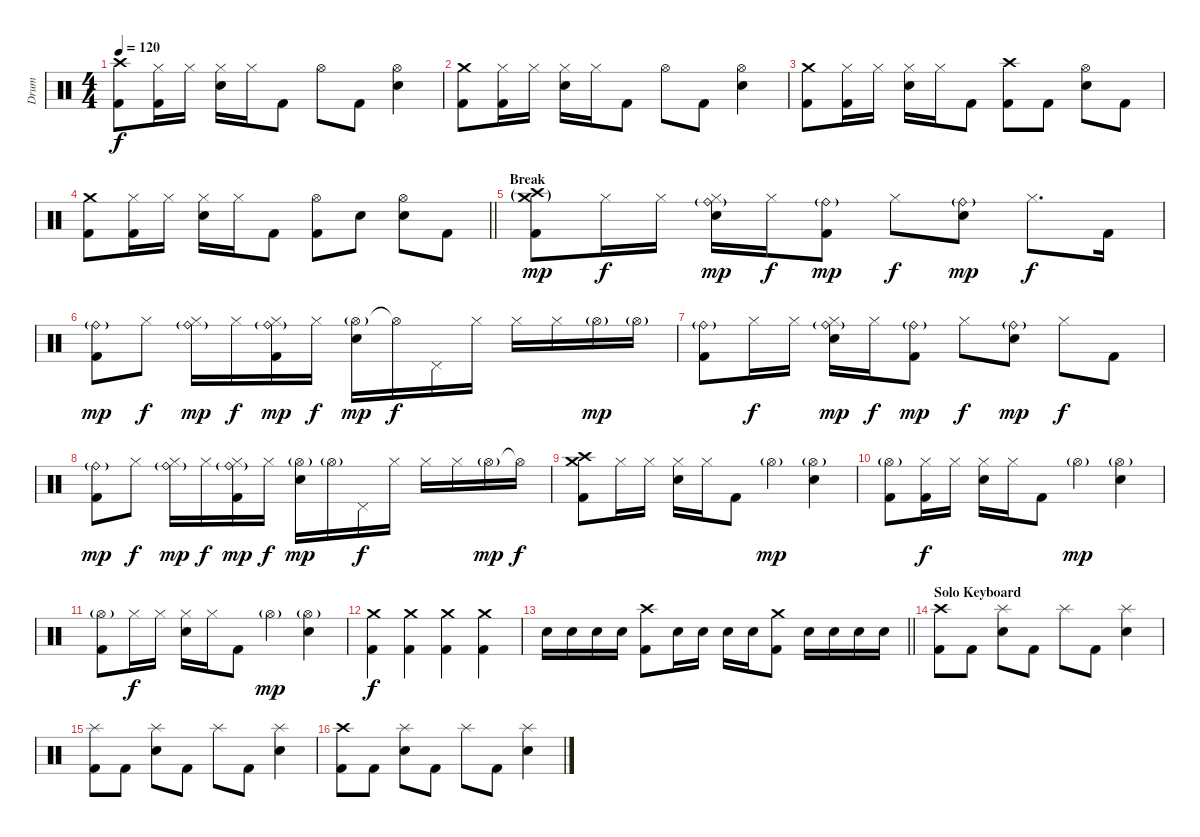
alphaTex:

\track ("Drum" "Drum") {instrument percussion}
\staff {score}
\articulation defaults
\ts (4 4)
\tempo 120
\clef neutral
\ks c
("Crash high (hit)" "Kick (hit) 2").8{dy f} ("Hi-Hat (closed)" "Kick (hit) 2").16 "Hi-Hat (closed)".16 ("Hi-Hat (closed)" "Electric Snare (hit)").16 "Hi-Hat (closed)".16 "Kick (hit) 2".8 "Hi-Hat (open)".8 "Kick (hit) 2".8 ("Hi-Hat (open)" "Electric Snare (hit)").4 |
("Crash medium (hit)" "Kick (hit) 2").8 ("Hi-Hat (closed)" "Kick (hit) 2").16 "Hi-Hat (closed)".16 ("Hi-Hat (closed)" "Electric Snare (hit)").16 "Hi-Hat (closed)".16 "Kick (hit) 2".8 "Hi-Hat (open)".8 "Kick (hit) 2".8 ("Hi-Hat (open)" "Electric Snare (hit)").4 |
("Crash medium (hit)" "Kick (hit) 2").8 ("Hi-Hat (closed)" "Kick (hit) 2").16 "Hi-Hat (closed)".16 ("Hi-Hat (closed)" "Electric Snare (hit)").16 "Hi-Hat (closed)".16 "Kick (hit) 2".8 ("Crash high (hit)" "Kick (hit) 2").8 "Kick (hit) 2".8 ("Hi-Hat (open)" "Electric Snare (hit)").8 "Kick (hit) 2".8 |
\barLineRight lightlight
("Crash medium (hit)" "Kick (hit) 2").8 ("Hi-Hat (closed)" "Kick (hit) 2").16 "Hi-Hat (closed)".16 ("Hi-Hat (closed)" "Electric Snare (hit)").16 "Hi-Hat (closed)".16 "Kick (hit) 2".8 ("Hi-Hat (open)" "Kick (hit) 2").8 "Electric Snare (hit)".8 ("Hi-Hat (open)" "Electric Snare (hit)").8 "Kick (hit) 2".8 |
\section ("" "Break")
("Crash medium (hit)"{g} "Crash high (hit)"{g} "Kick (hit) 2").8{dy mp} "Hi-Hat (closed)".16{dy f} "Hi-Hat (closed)".16 ("Hi-Hat (closed)" "Ride (bell)"{g} "Snare (hit) 2").16{dy mp} "Hi-Hat (closed)".16{dy f} ("Ride (bell)"{g} "Kick (hit) 2").8{dy mp} "Hi-Hat (closed)".8{dy f} ("Ride (bell)"{g} "Snare (hit) 2").8{dy mp} "Hi-Hat (closed)".8{d dy f} "Kick (hit) 2".16 |
("Ride (bell)"{g} "Kick (hit) 2").8{dy mp} "Hi-Hat (closed)".8{dy f} ("Hi-Hat (closed)" "Ride (bell)"{g}).16{dy mp} "Hi-Hat (closed)".16{dy f} ("Hi-Hat (closed)" "Ride (bell)"{g} "Kick (hit) 2").16{dy mp} "Hi-Hat (closed)".16{dy f} ("Hi-Hat (open)"{g} "Snare (hit) 2").16{dy mp} "Hi-Hat (open)"{t}.16{dy f} "Pedal Hi-Hat (hit)".16 "Hi-Hat (closed)".16 "Hi-Hat (closed)".16 "Hi-Hat (closed)".16 "Hi-Hat (open)"{g}.16{dy mp} "Hi-Hat (open)"{g}.16 |
("Ride (bell)"{g} "Kick (hit) 2").8 "Hi-Hat (closed)".16{dy f} "Hi-Hat (closed)".16 ("Hi-Hat (closed)" "Ride (bell)"{g} "Snare (hit) 2").16{dy mp} "Hi-Hat (closed)".16{dy f} ("Ride (bell)"{g} "Kick (hit) 2").8{dy mp} "Hi-Hat (closed)".8{dy f} ("Ride (bell)"{g} "Snare (hit) 2").8{dy mp} "Hi-Hat (closed)".8{dy f} "Kick (hit) 2".8 |
("Ride (bell)"{g} "Kick (hit) 2").8{dy mp} "Hi-Hat (closed)".8{dy f} ("Hi-Hat (closed)" "Ride (bell)"{g}).16{dy mp} "Hi-Hat (closed)".16{dy f} ("Hi-Hat (closed)" "Ride (bell)"{g} "Kick (hit) 2").16{dy mp} "Hi-Hat (closed)".16{dy f} ("Hi-Hat (open)"{g} "Snare (hit) 2").16{dy mp} "Hi-Hat (open)"{g}.16 "Pedal Hi-Hat (hit)".16{dy f} "Hi-Hat (closed)".16 "Hi-Hat (closed)".16 "Hi-Hat (closed)".16 "Hi-Hat (open)"{g}.16{dy mp} "Hi-Hat (open)"{t}.16{dy f} |
("Crash medium (hit)" "Crash high (hit)" "Kick (hit) 2").8 "Hi-Hat (closed)".16 "Hi-Hat (closed)".16 ("Hi-Hat (closed)" "Electric Snare (hit)").16 "Hi-Hat (closed)".16 "Kick (hit) 2".8 "Hi-Hat (open)"{g}.4{dy mp} ("Hi-Hat (open)"{g} "Electric Snare (hit)").4 |
("Hi-Hat (open)"{g} "Kick (hit) 2").8 ("Hi-Hat (closed)" "Kick (hit) 2").16{dy f} "Hi-Hat (closed)".16 ("Hi-Hat (closed)" "Electric Snare (hit)").16 "Hi-Hat (closed)".16 "Kick (hit) 2".8 "Hi-Hat (open)"{g}.4{dy mp} ("Hi-Hat (open)"{g} "Electric Snare (hit)").4 |
("Hi-Hat (open)"{g} "Kick (hit) 2").8 "Hi-Hat (closed)".16{dy f} "Hi-Hat (closed)".16 ("Hi-Hat (closed)" "Electric Snare (hit)").16 "Hi-Hat (closed)".16 "Kick (hit) 2".8 "Hi-Hat (open)"{g}.4{dy mp} ("Hi-Hat (open)"{g} "Electric Snare (hit)").4 |
("Crash medium (hit)" "Kick (hit) 2").4{dy f} ("Crash medium (hit)" "Kick (hit) 2").4 ("Crash medium (hit)" "Kick (hit) 2").4 ("Crash medium (hit)" "Kick (hit) 2").4 |
\barLineRight lightlight "Electric Snare (hit)".16 "Electric Snare (hit)".16 "Electric Snare (hit)".16 "Electric Snare (hit)".16
("Crash high (hit)" "Kick (hit) 2").8 "Electric Snare (hit)".16 "Electric Snare (hit)".16 "Electric Snare (hit)".16 "Electric Snare (hit)".16 ("Crash medium (hit)" "Kick (hit) 2").8 "Electric Snare (hit)".16 "Electric Snare (hit)".16 "Electric Snare (hit)".16 "Electric Snare (hit)".16 |
\section ("" "Solo Keyboard")
("Crash high (hit)" "Kick (hit) 2").8 "Kick (hit) 2".8 ("Splash (hit)" "Electric Snare (hit)").8 "Kick (hit) 2".8 "Splash (hit)".8 "Kick (hit) 2".8 ("Splash (hit)" "Electric Snare (hit)").4 |
("Splash (hit)" "Kick (hit) 2").8 "Kick (hit) 2".8 ("Splash (hit)" "Electric Snare (hit)").8 "Kick (hit) 2".8 "Splash (hit)".8 "Kick (hit) 2".8 ("Splash (hit)" "Electric Snare (hit)").4 |
("Crash high (hit)" "Kick (hit) 2").8 "Kick (hit) 2".8 ("Splash (hit)" "Electric Snare (hit)").8 "Kick (hit) 2".8 "Splash (hit)".8 "Kick (hit) 2".8 ("Splash (hit)" "Electric Snare (hit)").4
